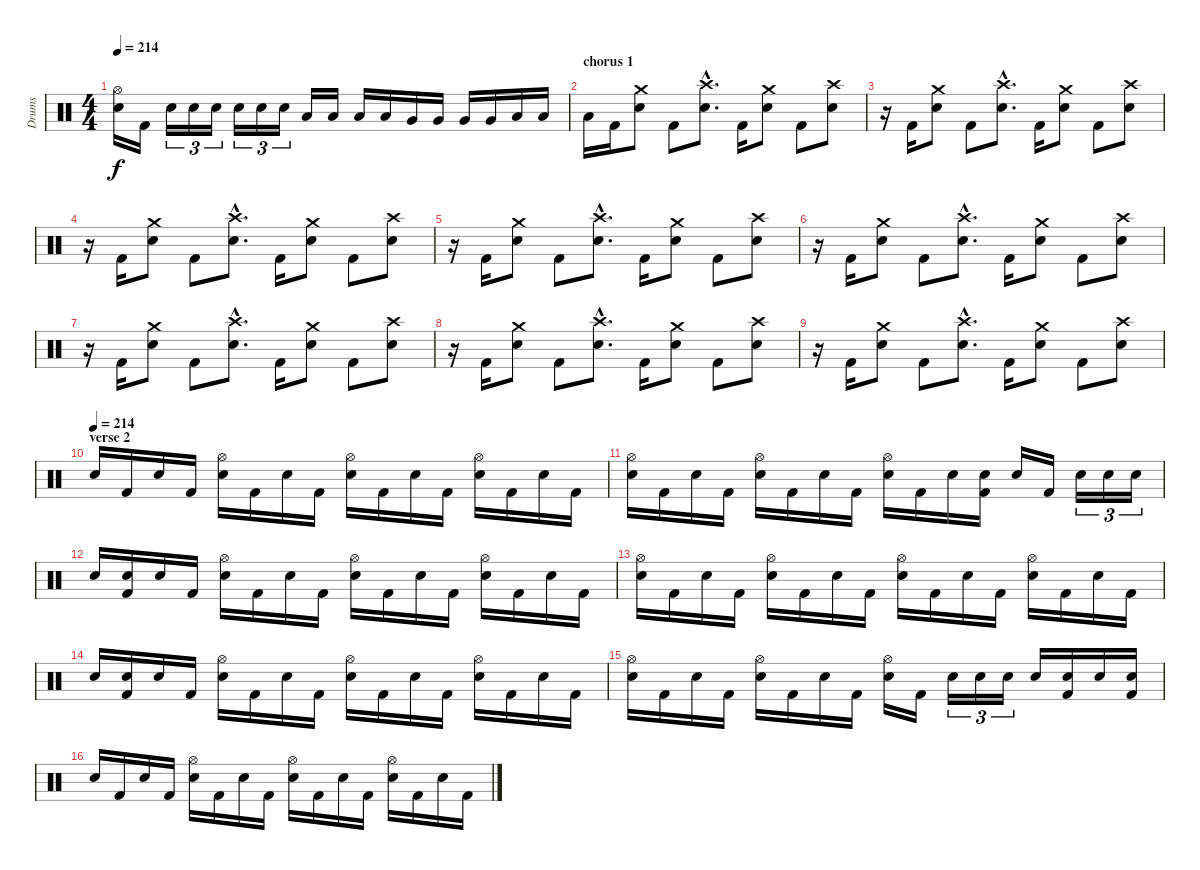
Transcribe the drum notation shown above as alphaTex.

\track ("Drums" "Drums") {instrument percussion}
\staff {score}
\articulation defaults
\ts (4 4)
\tempo 214
\clef neutral
\ks c
("Hi-Hat (open)" "Snare (hit) 2").16{dy f} "Kick (hit) 2".16 "Snare (hit) 2".16{tu (3 2)} "Snare (hit) 2".16{tu (3 2)} "Snare (hit) 2".16{tu (3 2)} "Snare (hit) 2".16{tu (3 2)} "Snare (hit) 2".16{tu (3 2)} "Snare (hit) 2".16{tu (3 2)} "Low Tom (hit)".16 "Low Tom (hit)".16 "Low Tom (hit)".16 "Low Tom (hit)".16 "Very Low Tom (hit)".16 "Very Low Tom (hit)".16 "Very Low Tom (hit)".16 "Very Low Tom (hit)".16 "Low Floor Tom (hit)".16 "Low Floor Tom (hit)".16 |
\section ("" "chorus 1")
"Low Floor Tom (hit)".16 "Kick (hit) 2".16 ("Crash medium (hit)" "Snare (hit) 2").8 "Kick (hit) 2".8 ("Crash high (hit)"{hac} "Snare (hit) 2"{hac}).8{d} "Kick (hit) 2".16 ("Crash medium (hit)" "Snare (hit) 2").8 "Kick (hit) 2".8 ("Crash high (hit)" "Snare (hit) 2").8 |
r.16 "Kick (hit) 2".16 ("Crash medium (hit)" "Snare (hit) 2").8 "Kick (hit) 2".8 ("Crash high (hit)"{hac} "Snare (hit) 2"{hac}).8{d} "Kick (hit) 2".16 ("Crash medium (hit)" "Snare (hit) 2").8 "Kick (hit) 2".8 ("Crash high (hit)" "Snare (hit) 2").8 |
r.16 "Kick (hit) 2".16 ("Crash medium (hit)" "Snare (hit) 2").8 "Kick (hit) 2".8 ("Crash high (hit)"{hac} "Snare (hit) 2"{hac}).8{d} "Kick (hit) 2".16 ("Crash medium (hit)" "Snare (hit) 2").8 "Kick (hit) 2".8 ("Crash high (hit)" "Snare (hit) 2").8 |
r.16 "Kick (hit) 2".16 ("Crash medium (hit)" "Snare (hit) 2").8 "Kick (hit) 2".8 ("Crash high (hit)"{hac} "Snare (hit) 2"{hac}).8{d} "Kick (hit) 2".16 ("Crash medium (hit)" "Snare (hit) 2").8 "Kick (hit) 2".8 ("Crash high (hit)" "Snare (hit) 2").8 |
r.16 "Kick (hit) 2".16 ("Crash medium (hit)" "Snare (hit) 2").8 "Kick (hit) 2".8 ("Crash high (hit)"{hac} "Snare (hit) 2"{hac}).8{d} "Kick (hit) 2".16 ("Crash medium (hit)" "Snare (hit) 2").8 "Kick (hit) 2".8 ("Crash high (hit)" "Snare (hit) 2").8 |
r.16 "Kick (hit) 2".16 ("Crash medium (hit)" "Snare (hit) 2").8 "Kick (hit) 2".8 ("Crash high (hit)"{hac} "Snare (hit) 2"{hac}).8{d} "Kick (hit) 2".16 ("Crash medium (hit)" "Snare (hit) 2").8 "Kick (hit) 2".8 ("Crash high (hit)" "Snare (hit) 2").8 |
r.16 "Kick (hit) 2".16 ("Crash medium (hit)" "Snare (hit) 2").8 "Kick (hit) 2".8 ("Crash high (hit)"{hac} "Snare (hit) 2"{hac}).8{d} "Kick (hit) 2".16 ("Crash medium (hit)" "Snare (hit) 2").8 "Kick (hit) 2".8 ("Crash high (hit)" "Snare (hit) 2").8 |
r.16 "Kick (hit) 2".16 ("Crash medium (hit)" "Snare (hit) 2").8 "Kick (hit) 2".8 ("Crash high (hit)"{hac} "Snare (hit) 2"{hac}).8{d} "Kick (hit) 2".16 ("Crash medium (hit)" "Snare (hit) 2").8 "Kick (hit) 2".8 ("Crash high (hit)" "Snare (hit) 2").8 |
\section ("" "verse 2")
\tempo (214)
"Snare (hit) 2".16 "Kick (hit) 2".16 "Snare (hit) 2".16 "Kick (hit) 2".16 ("Hi-Hat (open)" "Snare (hit) 2").16 "Kick (hit) 2".16 "Snare (hit) 2".16 "Kick (hit) 2".16 ("Hi-Hat (open)" "Snare (hit) 2").16 "Kick (hit) 2".16 "Snare (hit) 2".16 "Kick (hit) 2".16 ("Hi-Hat (open)" "Snare (hit) 2").16 "Kick (hit) 2".16 "Snare (hit) 2".16 "Kick (hit) 2".16 |
("Hi-Hat (open)" "Snare (hit) 2").16 "Kick (hit) 2".16 "Snare (hit) 2".16 "Kick (hit) 2".16 ("Hi-Hat (open)" "Snare (hit) 2").16 "Kick (hit) 2".16 "Snare (hit) 2".16 "Kick (hit) 2".16 ("Hi-Hat (open)" "Snare (hit) 2").16 "Kick (hit) 2".16 "Snare (hit) 2".16 ("Snare (hit) 2" "Kick (hit) 2").16 "Snare (hit) 2".16 "Kick (hit) 2".16 "Snare (hit) 2".16{tu (3 2)} "Snare (hit) 2".16{tu (3 2)} "Snare (hit) 2".16{tu (3 2)} |
"Snare (hit) 2".16 ("Snare (hit) 2" "Kick (hit) 2").16 "Snare (hit) 2".16 "Kick (hit) 2".16 ("Hi-Hat (open)" "Snare (hit) 2").16 "Kick (hit) 2".16 "Snare (hit) 2".16 "Kick (hit) 2".16 ("Hi-Hat (open)" "Snare (hit) 2").16 "Kick (hit) 2".16 "Snare (hit) 2".16 "Kick (hit) 2".16 ("Hi-Hat (open)" "Snare (hit) 2").16 "Kick (hit) 2".16 "Snare (hit) 2".16 "Kick (hit) 2".16 |
("Hi-Hat (open)" "Snare (hit) 2").16 "Kick (hit) 2".16 "Snare (hit) 2".16 "Kick (hit) 2".16 ("Hi-Hat (open)" "Snare (hit) 2").16 "Kick (hit) 2".16 "Snare (hit) 2".16 "Kick (hit) 2".16 ("Hi-Hat (open)" "Snare (hit) 2").16 "Kick (hit) 2".16 "Snare (hit) 2".16 "Kick (hit) 2".16 ("Hi-Hat (open)" "Snare (hit) 2").16 "Kick (hit) 2".16 "Snare (hit) 2".16 "Kick (hit) 2".16 |
"Snare (hit) 2".16 ("Snare (hit) 2" "Kick (hit) 2").16 "Snare (hit) 2".16 "Kick (hit) 2".16 ("Hi-Hat (open)" "Snare (hit) 2").16 "Kick (hit) 2".16 "Snare (hit) 2".16 "Kick (hit) 2".16 ("Hi-Hat (open)" "Snare (hit) 2").16 "Kick (hit) 2".16 "Snare (hit) 2".16 "Kick (hit) 2".16 ("Hi-Hat (open)" "Snare (hit) 2").16 "Kick (hit) 2".16 "Snare (hit) 2".16 "Kick (hit) 2".16 |
("Hi-Hat (open)" "Snare (hit) 2").16 "Kick (hit) 2".16 "Snare (hit) 2".16 "Kick (hit) 2".16 ("Hi-Hat (open)" "Snare (hit) 2").16 "Kick (hit) 2".16 "Snare (hit) 2".16 "Kick (hit) 2".16 ("Hi-Hat (open)" "Snare (hit) 2").16 "Kick (hit) 2".16 "Snare (hit) 2".16{tu (3 2)} "Snare (hit) 2".16{tu (3 2)} "Snare (hit) 2".16{tu (3 2)} "Snare (hit) 2".16 ("Snare (hit) 2" "Kick (hit) 2").16 "Snare (hit) 2".16 ("Snare (hit) 2" "Kick (hit) 2").16 |
"Snare (hit) 2".16 "Kick (hit) 2".16 "Snare (hit) 2".16 "Kick (hit) 2".16 ("Hi-Hat (open)" "Snare (hit) 2").16 "Kick (hit) 2".16 "Snare (hit) 2".16 "Kick (hit) 2".16 ("Hi-Hat (open)" "Snare (hit) 2").16 "Kick (hit) 2".16 "Snare (hit) 2".16 "Kick (hit) 2".16 ("Hi-Hat (open)" "Snare (hit) 2").16 "Kick (hit) 2".16 "Snare (hit) 2".16 "Kick (hit) 2".16
